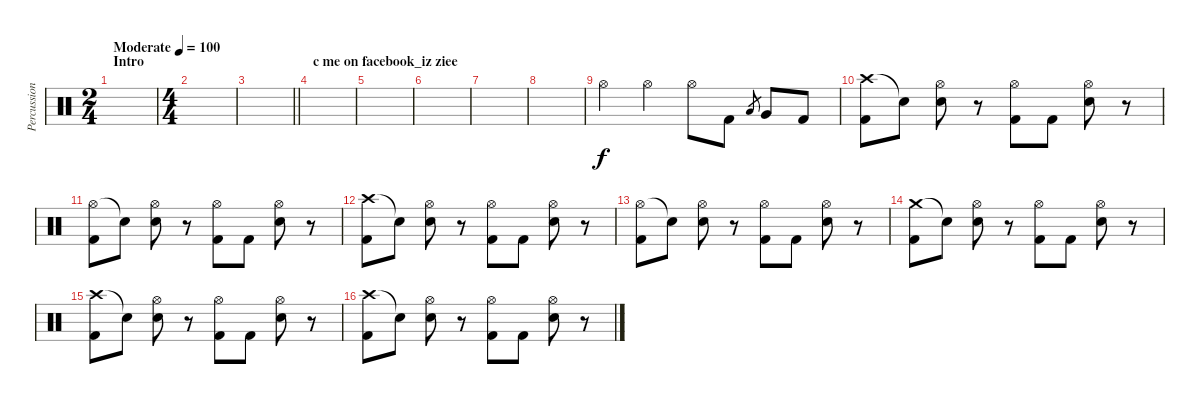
\track ("Percussion(Tomi)" "Percussion") {instrument percussion}
\staff {score}
\articulation defaults
\ts (2 4)
\section ("" "Intro")
\tempo (100 "Moderate")
\clef neutral
\ks c
|
\ts (4 4)
|
\barLineRight lightlight
|
\section ("" "c me on facebook_iz ziee")
|
|
|
|
|
"Hi-Hat (open)".4 "Hi-Hat (open)".4 "Hi-Hat (open)".8 "Kick (hit) 2".8 "Low Floor Tom (hit)".8{gr} "Very Low Tom (hit)".8 "Kick (hit) 2".8 |
("Crash high (hit)" "Kick (hit) 2").8 "Snare (hit)"{t}.8 ("Hi-Hat (open)" "Electric Snare (hit)").8 r.8 ("Hi-Hat (open)" "Kick (hit) 2").8 "Kick (hit) 2".8 ("Hi-Hat (open)" "Electric Snare (hit)").8 r.8 |
("Hi-Hat (open)" "Kick (hit) 2").8 "Snare (hit)"{t}.8 ("Hi-Hat (open)" "Electric Snare (hit)").8 r.8 ("Hi-Hat (open)" "Kick (hit) 2").8 "Kick (hit) 2".8 ("Hi-Hat (open)" "Electric Snare (hit)").8 r.8 |
("Crash high (hit)" "Kick (hit) 2").8 "Snare (hit)"{t}.8 ("Hi-Hat (open)" "Electric Snare (hit)").8 r.8 ("Hi-Hat (open)" "Kick (hit) 2").8 "Kick (hit) 2".8 ("Hi-Hat (open)" "Electric Snare (hit)").8 r.8 |
("Hi-Hat (open)" "Kick (hit) 2").8 "Snare (hit)"{t}.8 ("Hi-Hat (open)" "Electric Snare (hit)").8 r.8 ("Hi-Hat (open)" "Kick (hit) 2").8 "Kick (hit) 2".8 ("Hi-Hat (open)" "Electric Snare (hit)").8 r.8 |
("Crash medium (hit)" "Kick (hit) 2").8 "Snare (hit)"{t}.8 ("Hi-Hat (open)" "Electric Snare (hit)").8 r.8 ("Hi-Hat (open)" "Kick (hit) 2").8 "Kick (hit) 2".8 ("Hi-Hat (open)" "Electric Snare (hit)").8 r.8 |
("Crash high (hit)" "Kick (hit) 2").8 "Snare (hit)"{t}.8 ("Hi-Hat (open)" "Electric Snare (hit)").8 r.8 ("Hi-Hat (open)" "Kick (hit) 2").8 "Kick (hit) 2".8 ("Hi-Hat (open)" "Electric Snare (hit)").8 r.8 |
("Crash high (hit)" "Kick (hit) 2").8 "Snare (hit)"{t}.8 ("Hi-Hat (open)" "Electric Snare (hit)").8 r.8 ("Hi-Hat (open)" "Kick (hit) 2").8 "Kick (hit) 2".8 ("Hi-Hat (open)" "Electric Snare (hit)").8 r.8
